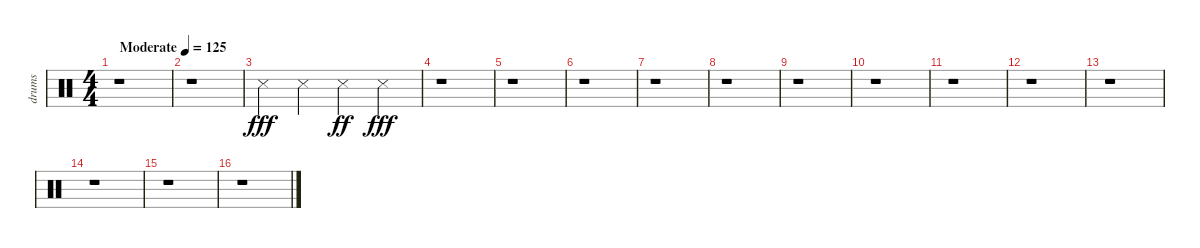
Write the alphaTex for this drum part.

\track ("drums   " "drums   ") {instrument percussion}
\staff {score}
\articulation defaults
\ts (4 4)
\tempo (125 "Moderate")
\clef neutral
\ks c
r.1{dy fff} |
r.1 |
"Snare (side stick) 3".4 "Snare (side stick) 3".4 "Snare (side stick) 3".4{dy ff} "Snare (side stick) 3".4{dy fff} |
r.1 |
r.1 |
r.1 |
r.1 |
r.1 |
r.1 |
r.1 |
r.1 |
r.1 |
r.1 |
r.1 |
r.1 |
r.1
